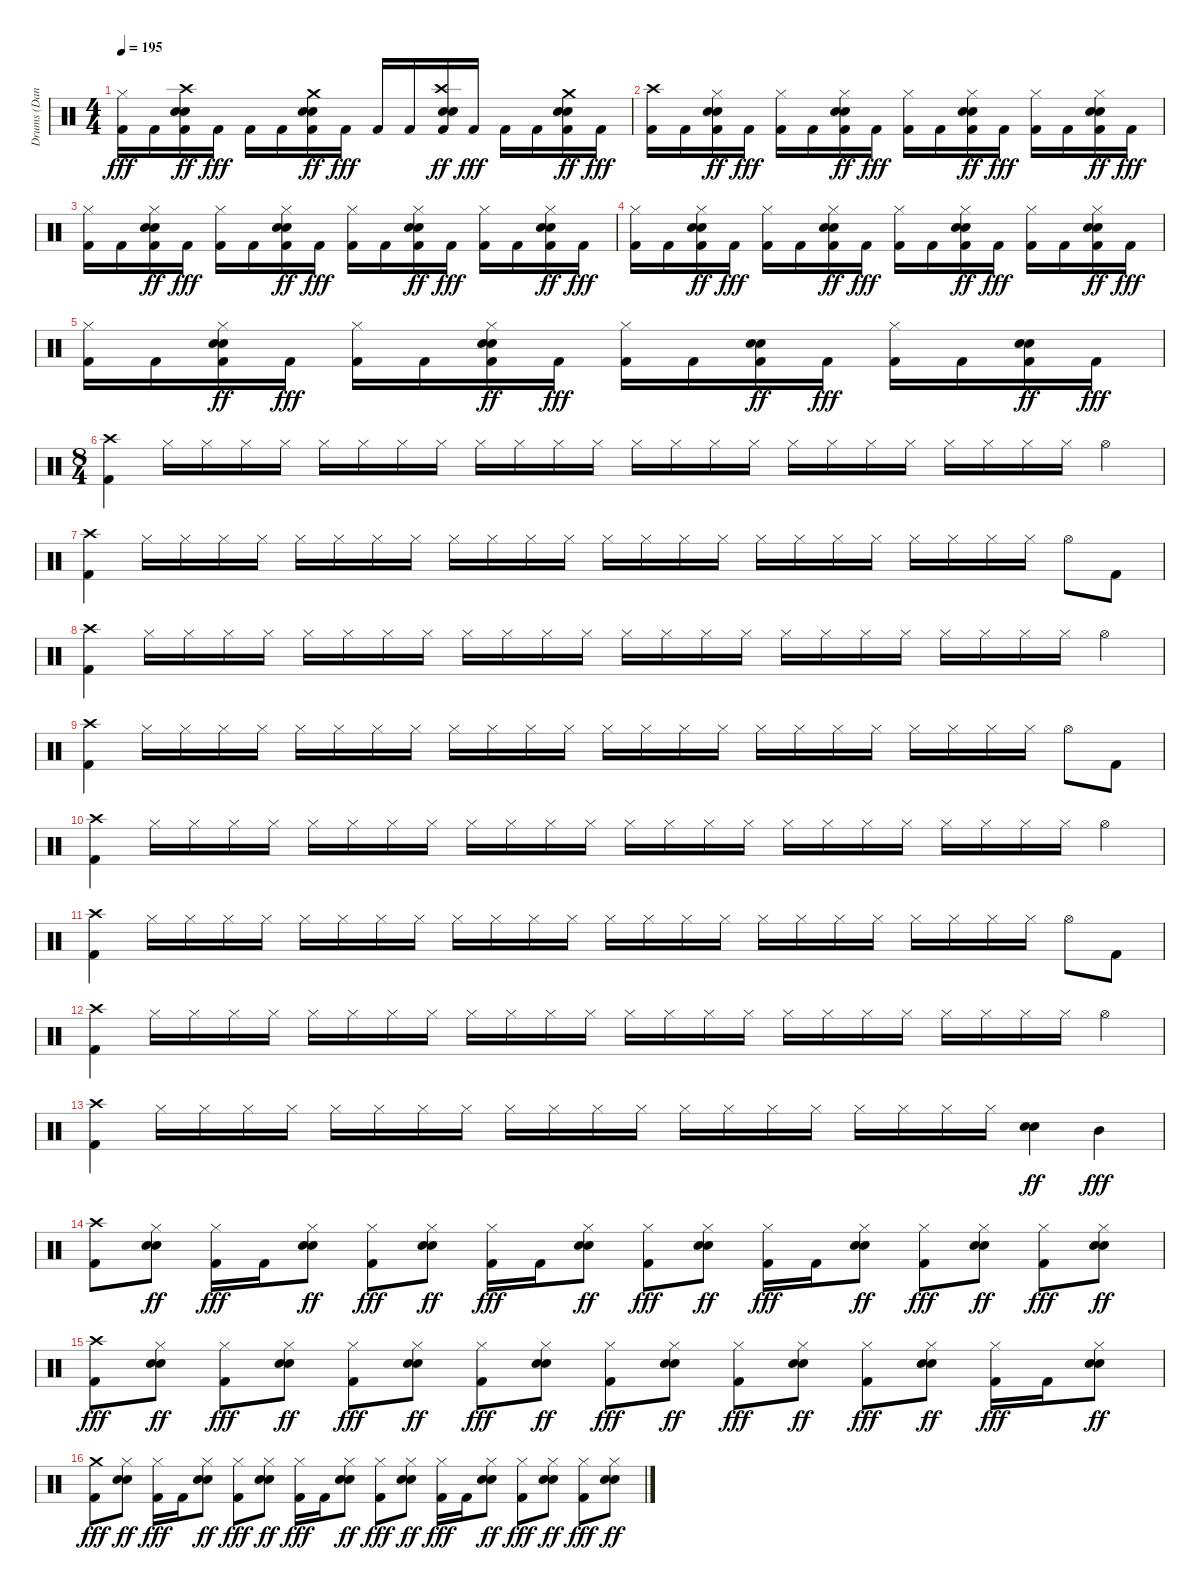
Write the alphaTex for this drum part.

\track ("Drums (Dan Zimmermann)" "Drums (Dan") {instrument percussion}
\staff {score}
\articulation defaults
\ts (4 4)
\tempo 195
\clef neutral
\ks c
("Kick (hit) 2" "Hi-Hat (closed)").16{dy fff} "Kick (hit) 2".16 ("Metronome (bell)" "Kick (hit) 2" "Crash high (hit)" "Snare (hit) 2").16{dy ff} "Kick (hit) 2".16{dy fff} "Kick (hit) 2".16 "Kick (hit) 2".16 ("Metronome (bell)" "Kick (hit) 2" "Crash medium (hit)" "Snare (hit) 2").16{dy ff} "Kick (hit) 2".16{dy fff} "Kick (hit) 2".16 "Kick (hit) 2".16 ("Metronome (bell)" "Kick (hit) 2" "Crash high (hit)" "Snare (hit) 2").16{dy ff} "Kick (hit) 2".16{dy fff} "Kick (hit) 2".16 "Kick (hit) 2".16 ("Metronome (bell)" "Kick (hit) 2" "Crash medium (hit)" "Snare (hit) 2").16{dy ff} "Kick (hit) 2".16{dy fff} |
("Kick (hit) 2" "Crash high (hit)").16 "Kick (hit) 2".16 ("Metronome (bell)" "Kick (hit) 2" "Hi-Hat (closed)" "Snare (hit) 2").16{dy ff} "Kick (hit) 2".16{dy fff} ("Kick (hit) 2" "Hi-Hat (closed)").16 "Kick (hit) 2".16 ("Metronome (bell)" "Kick (hit) 2" "Hi-Hat (closed)" "Snare (hit) 2").16{dy ff} "Kick (hit) 2".16{dy fff} ("Kick (hit) 2" "Hi-Hat (closed)").16 "Kick (hit) 2".16 ("Metronome (bell)" "Kick (hit) 2" "Hi-Hat (closed)" "Snare (hit) 2").16{dy ff} "Kick (hit) 2".16{dy fff} ("Kick (hit) 2" "Hi-Hat (closed)").16 "Kick (hit) 2".16 ("Metronome (bell)" "Kick (hit) 2" "Hi-Hat (closed)" "Snare (hit) 2").16{dy ff} "Kick (hit) 2".16{dy fff} |
("Kick (hit) 2" "Hi-Hat (closed)").16 "Kick (hit) 2".16 ("Metronome (bell)" "Kick (hit) 2" "Hi-Hat (closed)" "Snare (hit) 2").16{dy ff} "Kick (hit) 2".16{dy fff} ("Kick (hit) 2" "Hi-Hat (closed)").16 "Kick (hit) 2".16 ("Metronome (bell)" "Kick (hit) 2" "Hi-Hat (closed)" "Snare (hit) 2").16{dy ff} "Kick (hit) 2".16{dy fff} ("Kick (hit) 2" "Hi-Hat (closed)").16 "Kick (hit) 2".16 ("Metronome (bell)" "Kick (hit) 2" "Hi-Hat (closed)" "Snare (hit) 2").16{dy ff} "Kick (hit) 2".16{dy fff} ("Kick (hit) 2" "Hi-Hat (closed)").16 "Kick (hit) 2".16 ("Metronome (bell)" "Kick (hit) 2" "Hi-Hat (closed)" "Snare (hit) 2").16{dy ff} "Kick (hit) 2".16{dy fff} |
("Kick (hit) 2" "Hi-Hat (closed)").16 "Kick (hit) 2".16 ("Metronome (bell)" "Kick (hit) 2" "Hi-Hat (closed)" "Snare (hit) 2").16{dy ff} "Kick (hit) 2".16{dy fff} ("Kick (hit) 2" "Hi-Hat (closed)").16 "Kick (hit) 2".16 ("Metronome (bell)" "Kick (hit) 2" "Hi-Hat (closed)" "Snare (hit) 2").16{dy ff} "Kick (hit) 2".16{dy fff} ("Kick (hit) 2" "Hi-Hat (closed)").16 "Kick (hit) 2".16 ("Metronome (bell)" "Kick (hit) 2" "Hi-Hat (closed)" "Snare (hit) 2").16{dy ff} "Kick (hit) 2".16{dy fff} ("Kick (hit) 2" "Hi-Hat (closed)").16 "Kick (hit) 2".16 ("Metronome (bell)" "Kick (hit) 2" "Hi-Hat (closed)" "Snare (hit) 2").16{dy ff} "Kick (hit) 2".16{dy fff} |
("Kick (hit) 2" "Hi-Hat (closed)").16 "Kick (hit) 2".16 ("Metronome (bell)" "Kick (hit) 2" "Hi-Hat (closed)" "Snare (hit) 2").16{dy ff} "Kick (hit) 2".16{dy fff} ("Kick (hit) 2" "Hi-Hat (closed)").16 "Kick (hit) 2".16 ("Metronome (bell)" "Kick (hit) 2" "Hi-Hat (closed)" "Snare (hit) 2").16{dy ff} "Kick (hit) 2".16{dy fff} ("Kick (hit) 2" "Hi-Hat (closed)").16 "Kick (hit) 2".16 ("Metronome (bell)" "Kick (hit) 2" "Snare (hit) 2").16{dy ff} "Kick (hit) 2".16{dy fff} ("Kick (hit) 2" "Hi-Hat (closed)").16 "Kick (hit) 2".16 ("Metronome (bell)" "Kick (hit) 2" "Snare (hit) 2").16{dy ff} "Kick (hit) 2".16{dy fff} |
\ts (8 4)
("Kick (hit) 2" "Crash high (hit)").4 "Hi-Hat (closed)".16 "Hi-Hat (closed)".16 "Hi-Hat (closed)".16 "Hi-Hat (closed)".16 "Hi-Hat (closed)".16 "Hi-Hat (closed)".16 "Hi-Hat (closed)".16 "Hi-Hat (closed)".16 "Hi-Hat (closed)".16 "Hi-Hat (closed)".16 "Hi-Hat (closed)".16 "Hi-Hat (closed)".16 "Hi-Hat (closed)".16 "Hi-Hat (closed)".16 "Hi-Hat (closed)".16 "Hi-Hat (closed)".16 "Hi-Hat (closed)".16 "Hi-Hat (closed)".16 "Hi-Hat (closed)".16 "Hi-Hat (closed)".16 "Hi-Hat (closed)".16 "Hi-Hat (closed)".16 "Hi-Hat (closed)".16 "Hi-Hat (closed)".16 "Hi-Hat (open)".4 |
("Kick (hit) 2" "Crash high (hit)").4 "Hi-Hat (closed)".16 "Hi-Hat (closed)".16 "Hi-Hat (closed)".16 "Hi-Hat (closed)".16 "Hi-Hat (closed)".16 "Hi-Hat (closed)".16 "Hi-Hat (closed)".16 "Hi-Hat (closed)".16 "Hi-Hat (closed)".16 "Hi-Hat (closed)".16 "Hi-Hat (closed)".16 "Hi-Hat (closed)".16 "Hi-Hat (closed)".16 "Hi-Hat (closed)".16 "Hi-Hat (closed)".16 "Hi-Hat (closed)".16 "Hi-Hat (closed)".16 "Hi-Hat (closed)".16 "Hi-Hat (closed)".16 "Hi-Hat (closed)".16 "Hi-Hat (closed)".16 "Hi-Hat (closed)".16 "Hi-Hat (closed)".16 "Hi-Hat (closed)".16 "Hi-Hat (open)".8 "Kick (hit) 2".8 |
("Kick (hit) 2" "Crash high (hit)").4 "Hi-Hat (closed)".16 "Hi-Hat (closed)".16 "Hi-Hat (closed)".16 "Hi-Hat (closed)".16 "Hi-Hat (closed)".16 "Hi-Hat (closed)".16 "Hi-Hat (closed)".16 "Hi-Hat (closed)".16 "Hi-Hat (closed)".16 "Hi-Hat (closed)".16 "Hi-Hat (closed)".16 "Hi-Hat (closed)".16 "Hi-Hat (closed)".16 "Hi-Hat (closed)".16 "Hi-Hat (closed)".16 "Hi-Hat (closed)".16 "Hi-Hat (closed)".16 "Hi-Hat (closed)".16 "Hi-Hat (closed)".16 "Hi-Hat (closed)".16 "Hi-Hat (closed)".16 "Hi-Hat (closed)".16 "Hi-Hat (closed)".16 "Hi-Hat (closed)".16 "Hi-Hat (open)".4 |
("Kick (hit) 2" "Crash high (hit)").4 "Hi-Hat (closed)".16 "Hi-Hat (closed)".16 "Hi-Hat (closed)".16 "Hi-Hat (closed)".16 "Hi-Hat (closed)".16 "Hi-Hat (closed)".16 "Hi-Hat (closed)".16 "Hi-Hat (closed)".16 "Hi-Hat (closed)".16 "Hi-Hat (closed)".16 "Hi-Hat (closed)".16 "Hi-Hat (closed)".16 "Hi-Hat (closed)".16 "Hi-Hat (closed)".16 "Hi-Hat (closed)".16 "Hi-Hat (closed)".16 "Hi-Hat (closed)".16 "Hi-Hat (closed)".16 "Hi-Hat (closed)".16 "Hi-Hat (closed)".16 "Hi-Hat (closed)".16 "Hi-Hat (closed)".16 "Hi-Hat (closed)".16 "Hi-Hat (closed)".16 "Hi-Hat (open)".8 "Kick (hit) 2".8 |
("Kick (hit) 2" "Crash high (hit)").4 "Hi-Hat (closed)".16 "Hi-Hat (closed)".16 "Hi-Hat (closed)".16 "Hi-Hat (closed)".16 "Hi-Hat (closed)".16 "Hi-Hat (closed)".16 "Hi-Hat (closed)".16 "Hi-Hat (closed)".16 "Hi-Hat (closed)".16 "Hi-Hat (closed)".16 "Hi-Hat (closed)".16 "Hi-Hat (closed)".16 "Hi-Hat (closed)".16 "Hi-Hat (closed)".16 "Hi-Hat (closed)".16 "Hi-Hat (closed)".16 "Hi-Hat (closed)".16 "Hi-Hat (closed)".16 "Hi-Hat (closed)".16 "Hi-Hat (closed)".16 "Hi-Hat (closed)".16 "Hi-Hat (closed)".16 "Hi-Hat (closed)".16 "Hi-Hat (closed)".16 "Hi-Hat (open)".4 |
("Kick (hit) 2" "Crash high (hit)").4 "Hi-Hat (closed)".16 "Hi-Hat (closed)".16 "Hi-Hat (closed)".16 "Hi-Hat (closed)".16 "Hi-Hat (closed)".16 "Hi-Hat (closed)".16 "Hi-Hat (closed)".16 "Hi-Hat (closed)".16 "Hi-Hat (closed)".16 "Hi-Hat (closed)".16 "Hi-Hat (closed)".16 "Hi-Hat (closed)".16 "Hi-Hat (closed)".16 "Hi-Hat (closed)".16 "Hi-Hat (closed)".16 "Hi-Hat (closed)".16 "Hi-Hat (closed)".16 "Hi-Hat (closed)".16 "Hi-Hat (closed)".16 "Hi-Hat (closed)".16 "Hi-Hat (closed)".16 "Hi-Hat (closed)".16 "Hi-Hat (closed)".16 "Hi-Hat (closed)".16 "Hi-Hat (open)".8 "Kick (hit) 2".8 |
("Kick (hit) 2" "Crash high (hit)").4 "Hi-Hat (closed)".16 "Hi-Hat (closed)".16 "Hi-Hat (closed)".16 "Hi-Hat (closed)".16 "Hi-Hat (closed)".16 "Hi-Hat (closed)".16 "Hi-Hat (closed)".16 "Hi-Hat (closed)".16 "Hi-Hat (closed)".16 "Hi-Hat (closed)".16 "Hi-Hat (closed)".16 "Hi-Hat (closed)".16 "Hi-Hat (closed)".16 "Hi-Hat (closed)".16 "Hi-Hat (closed)".16 "Hi-Hat (closed)".16 "Hi-Hat (closed)".16 "Hi-Hat (closed)".16 "Hi-Hat (closed)".16 "Hi-Hat (closed)".16 "Hi-Hat (closed)".16 "Hi-Hat (closed)".16 "Hi-Hat (closed)".16 "Hi-Hat (closed)".16 "Hi-Hat (open)".4 |
("Kick (hit) 2" "Crash high (hit)").4 "Hi-Hat (closed)".16 "Hi-Hat (closed)".16 "Hi-Hat (closed)".16 "Hi-Hat (closed)".16 "Hi-Hat (closed)".16 "Hi-Hat (closed)".16 "Hi-Hat (closed)".16 "Hi-Hat (closed)".16 "Hi-Hat (closed)".16 "Hi-Hat (closed)".16 "Hi-Hat (closed)".16 "Hi-Hat (closed)".16 "Hi-Hat (closed)".16 "Hi-Hat (closed)".16 "Hi-Hat (closed)".16 "Hi-Hat (closed)".16 "Hi-Hat (closed)".16 "Hi-Hat (closed)".16 "Hi-Hat (closed)".16 "Hi-Hat (closed)".16 ("Metronome (bell)" "Snare (hit) 2").4{dy ff} "Mid Tom (hit)".4{dy fff} |
("Kick (hit) 2" "Crash high (hit)").8 ("Metronome (bell)" "Hi-Hat (closed)" "Snare (hit) 2").8{dy ff} ("Kick (hit) 2" "Hi-Hat (closed)").16{dy fff} "Kick (hit) 2".16 ("Metronome (bell)" "Hi-Hat (closed)" "Snare (hit) 2").8{dy ff} ("Kick (hit) 2" "Hi-Hat (closed)").8{dy fff} ("Metronome (bell)" "Hi-Hat (closed)" "Snare (hit) 2").8{dy ff} ("Kick (hit) 2" "Hi-Hat (closed)").16{dy fff} "Kick (hit) 2".16 ("Metronome (bell)" "Hi-Hat (closed)" "Snare (hit) 2").8{dy ff} ("Kick (hit) 2" "Hi-Hat (closed)").8{dy fff} ("Metronome (bell)" "Hi-Hat (closed)" "Snare (hit) 2").8{dy ff} ("Kick (hit) 2" "Hi-Hat (closed)").16{dy fff} "Kick (hit) 2".16 ("Metronome (bell)" "Hi-Hat (closed)" "Snare (hit) 2").8{dy ff} ("Kick (hit) 2" "Hi-Hat (closed)").8{dy fff} ("Metronome (bell)" "Hi-Hat (closed)" "Snare (hit) 2").8{dy ff} ("Kick (hit) 2" "Hi-Hat (closed)").8{dy fff} ("Metronome (bell)" "Hi-Hat (closed)" "Snare (hit) 2").8{dy ff} |
("Kick (hit) 2" "Crash high (hit)").8{dy fff} ("Metronome (bell)" "Hi-Hat (closed)" "Snare (hit) 2").8{dy ff} ("Kick (hit) 2" "Hi-Hat (closed)").8{dy fff} ("Metronome (bell)" "Hi-Hat (closed)" "Snare (hit) 2").8{dy ff} ("Kick (hit) 2" "Hi-Hat (closed)").8{dy fff} ("Metronome (bell)" "Hi-Hat (closed)" "Snare (hit) 2").8{dy ff} ("Kick (hit) 2" "Hi-Hat (closed)").8{dy fff} ("Metronome (bell)" "Hi-Hat (closed)" "Snare (hit) 2").8{dy ff} ("Kick (hit) 2" "Hi-Hat (closed)").8{dy fff} ("Metronome (bell)" "Hi-Hat (closed)" "Snare (hit) 2").8{dy ff} ("Kick (hit) 2" "Hi-Hat (closed)").8{dy fff} ("Metronome (bell)" "Hi-Hat (closed)" "Snare (hit) 2").8{dy ff} ("Kick (hit) 2" "Hi-Hat (closed)").8{dy fff} ("Metronome (bell)" "Hi-Hat (closed)" "Snare (hit) 2").8{dy ff} ("Kick (hit) 2" "Hi-Hat (closed)").16{dy fff} "Kick (hit) 2".16 ("Metronome (bell)" "Hi-Hat (closed)" "Snare (hit) 2").8{dy ff} |
("Kick (hit) 2" "Crash medium (hit)").8{dy fff} ("Metronome (bell)" "Hi-Hat (closed)" "Snare (hit) 2").8{dy ff} ("Kick (hit) 2" "Hi-Hat (closed)").16{dy fff} "Kick (hit) 2".16 ("Metronome (bell)" "Hi-Hat (closed)" "Snare (hit) 2").8{dy ff} ("Kick (hit) 2" "Hi-Hat (closed)").8{dy fff} ("Metronome (bell)" "Hi-Hat (closed)" "Snare (hit) 2").8{dy ff} ("Kick (hit) 2" "Hi-Hat (closed)").16{dy fff} "Kick (hit) 2".16 ("Metronome (bell)" "Hi-Hat (closed)" "Snare (hit) 2").8{dy ff} ("Kick (hit) 2" "Hi-Hat (closed)").8{dy fff} ("Metronome (bell)" "Hi-Hat (closed)" "Snare (hit) 2").8{dy ff} ("Kick (hit) 2" "Hi-Hat (closed)").16{dy fff} "Kick (hit) 2".16 ("Metronome (bell)" "Hi-Hat (closed)" "Snare (hit) 2").8{dy ff} ("Kick (hit) 2" "Hi-Hat (closed)").8{dy fff} ("Metronome (bell)" "Hi-Hat (closed)" "Snare (hit) 2").8{dy ff} ("Kick (hit) 2" "Hi-Hat (closed)").8{dy fff} ("Metronome (bell)" "Hi-Hat (closed)" "Snare (hit) 2").8{dy ff}
